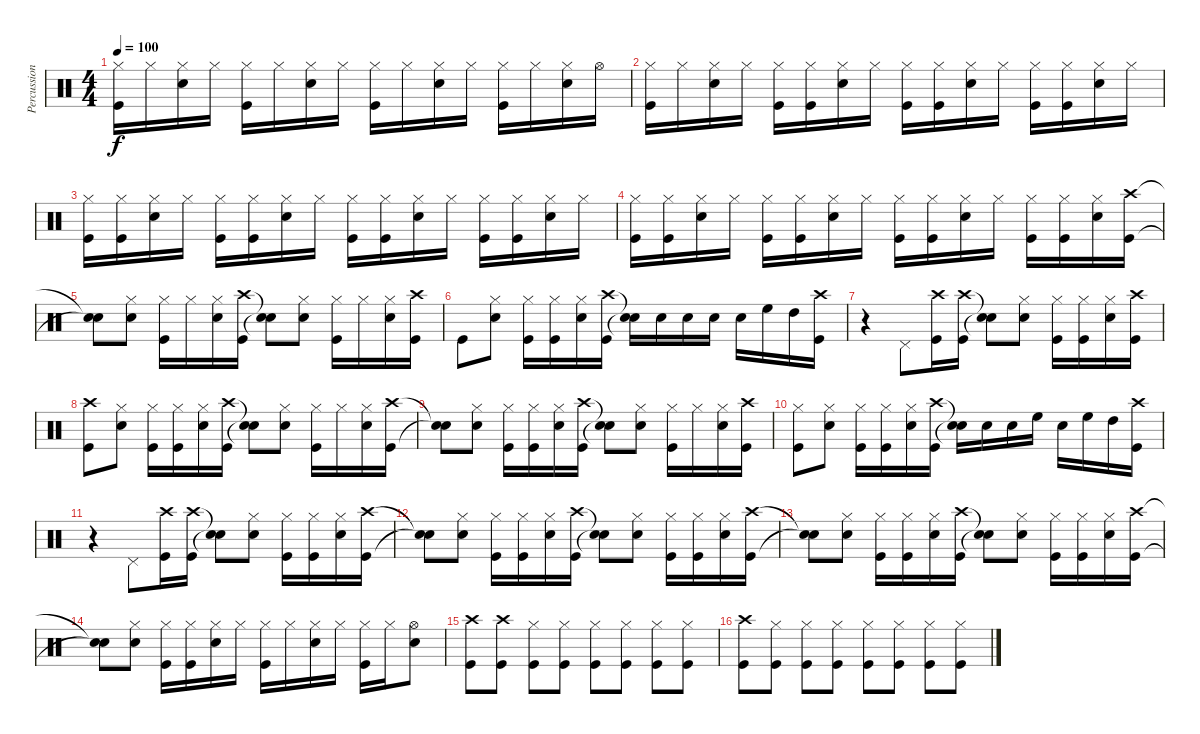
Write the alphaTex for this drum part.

\track ("Percussions" "Percussion") {instrument percussion}
\staff {score}
\articulation defaults
\ts (4 4)
\tempo 100
\clef neutral
\ks c
("Hi-Hat (closed)" "Kick (hit)").16{dy f} "Hi-Hat (closed)".16 ("Hi-Hat (closed)" "Snare (hit) 2").16 "Hi-Hat (closed)".16 ("Hi-Hat (closed)" "Kick (hit)").16 "Hi-Hat (closed)".16 ("Hi-Hat (closed)" "Snare (hit) 2").16 "Hi-Hat (closed)".16 ("Hi-Hat (closed)" "Kick (hit)").16 "Hi-Hat (closed)".16 ("Hi-Hat (closed)" "Snare (hit) 2").16 "Hi-Hat (closed)".16 ("Hi-Hat (closed)" "Kick (hit)").16 "Hi-Hat (closed)".16 ("Hi-Hat (closed)" "Snare (hit) 2").16 "Hi-Hat (open)".16 |
("Hi-Hat (closed)" "Kick (hit)").16 "Hi-Hat (closed)".16 ("Hi-Hat (closed)" "Snare (hit) 2").16 "Hi-Hat (closed)".16 ("Hi-Hat (closed)" "Kick (hit)").16 ("Hi-Hat (closed)" "Kick (hit)").16 ("Hi-Hat (closed)" "Snare (hit) 2").16 "Hi-Hat (closed)".16 ("Hi-Hat (closed)" "Kick (hit)").16 ("Hi-Hat (closed)" "Kick (hit)").16 ("Hi-Hat (closed)" "Snare (hit) 2").16 "Hi-Hat (closed)".16 ("Hi-Hat (closed)" "Kick (hit)").16 ("Hi-Hat (closed)" "Kick (hit)").16 ("Hi-Hat (closed)" "Snare (hit) 2").16 "Hi-Hat (closed)".16 |
("Hi-Hat (closed)" "Kick (hit)").16 ("Hi-Hat (closed)" "Kick (hit)").16 ("Hi-Hat (closed)" "Snare (hit) 2").16 "Hi-Hat (closed)".16 ("Hi-Hat (closed)" "Kick (hit)").16 ("Hi-Hat (closed)" "Kick (hit)").16 ("Hi-Hat (closed)" "Snare (hit) 2").16 "Hi-Hat (closed)".16 ("Hi-Hat (closed)" "Kick (hit)").16 ("Hi-Hat (closed)" "Kick (hit)").16 ("Hi-Hat (closed)" "Snare (hit) 2").16 "Hi-Hat (closed)".16 ("Hi-Hat (closed)" "Kick (hit)").16 ("Hi-Hat (closed)" "Kick (hit)").16 ("Hi-Hat (closed)" "Snare (hit) 2").16 "Hi-Hat (closed)".16 |
("Hi-Hat (closed)" "Kick (hit)").16 ("Hi-Hat (closed)" "Kick (hit)").16 ("Hi-Hat (closed)" "Snare (hit) 2").16 "Hi-Hat (closed)".16 ("Hi-Hat (closed)" "Kick (hit)").16 ("Hi-Hat (closed)" "Kick (hit)").16 ("Hi-Hat (closed)" "Snare (hit) 2").16 "Hi-Hat (closed)".16 ("Hi-Hat (closed)" "Kick (hit)").16 ("Hi-Hat (closed)" "Kick (hit)").16 ("Hi-Hat (closed)" "Snare (hit) 2").16 "Hi-Hat (closed)".16 ("Hi-Hat (closed)" "Kick (hit)").16 ("Hi-Hat (closed)" "Kick (hit)").16 ("Hi-Hat (closed)" "Snare (hit) 2").16 ("Crash high (hit)" "Kick (hit)").16 |
("Snare (hit)"{t} "Snare (hit)"{t}).8 ("Hi-Hat (closed)" "Snare (hit) 2").8 ("Hi-Hat (closed)" "Kick (hit)").16 "Hi-Hat (closed)".16 ("Hi-Hat (closed)" "Snare (hit) 2").16 ("Crash high (hit)" "Kick (hit)").16 ("Snare (hit)"{t} "Snare (hit)"{t}).8 ("Hi-Hat (closed)" "Snare (hit) 2").8 ("Hi-Hat (closed)" "Kick (hit)").16 "Hi-Hat (closed)".16 ("Hi-Hat (closed)" "Snare (hit) 2").16 ("Crash high (hit)" "Kick (hit)").16 |
"Kick (hit)".8 ("Hi-Hat (closed)" "Snare (hit) 2").8 ("Hi-Hat (closed)" "Kick (hit)").16 ("Hi-Hat (closed)" "Kick (hit)").16 ("Hi-Hat (closed)" "Snare (hit) 2").16 ("Crash high (hit)" "Kick (hit)").16 ("Snare (hit)"{t} "Snare (hit)"{t}).16 "Snare (hit) 2".16 "Snare (hit) 2".16 "Snare (hit) 2".16 "Snare (hit) 2".16 "High Floor Tom (hit)".16 "High Tom (hit)".16 ("Crash high (hit)" "Kick (hit)").16 |
r.4 "Pedal Hi-Hat (hit)".8 ("Crash high (hit)" "Kick (hit)").16 ("Crash high (hit)" "Kick (hit)").16 ("Snare (hit)"{t} "Snare (hit)"{t}).8 ("Hi-Hat (closed)" "Snare (hit) 2").8 ("Hi-Hat (closed)" "Kick (hit)").16 ("Hi-Hat (closed)" "Kick (hit)").16 ("Hi-Hat (closed)" "Snare (hit) 2").16 ("Crash high (hit)" "Kick (hit)").16 |
("Crash high (hit)" "Kick (hit)").8 ("Hi-Hat (closed)" "Snare (hit) 2").8 ("Hi-Hat (closed)" "Kick (hit)").16 ("Hi-Hat (closed)" "Kick (hit)").16 ("Hi-Hat (closed)" "Snare (hit) 2").16 ("Crash high (hit)" "Kick (hit)").16 ("Snare (hit)"{t} "Snare (hit)"{t}).8 ("Hi-Hat (closed)" "Snare (hit) 2").8 ("Hi-Hat (closed)" "Kick (hit)").16 "Hi-Hat (closed)".16 ("Hi-Hat (closed)" "Snare (hit) 2").16 ("Crash high (hit)" "Kick (hit)").16 |
("Snare (hit)"{t} "Snare (hit)"{t}).8 ("Hi-Hat (closed)" "Snare (hit) 2").8 ("Hi-Hat (closed)" "Kick (hit)").16 ("Hi-Hat (closed)" "Kick (hit)").16 ("Hi-Hat (closed)" "Snare (hit) 2").16 ("Crash high (hit)" "Kick (hit)").16 ("Snare (hit)"{t} "Snare (hit)"{t}).8 ("Hi-Hat (closed)" "Snare (hit) 2").8 ("Hi-Hat (closed)" "Kick (hit)").16 "Hi-Hat (closed)".16 ("Hi-Hat (closed)" "Snare (hit) 2").16 ("Crash high (hit)" "Kick (hit)").16 |
("Hi-Hat (closed)" "Kick (hit)").8 ("Hi-Hat (closed)" "Snare (hit) 2").8 ("Hi-Hat (closed)" "Kick (hit)").16 ("Hi-Hat (closed)" "Kick (hit)").16 ("Hi-Hat (closed)" "Snare (hit) 2").16 ("Crash high (hit)" "Kick (hit)").16 ("Snare (hit)"{t} "Snare (hit)"{t}).16 "Snare (hit) 2".16 "Snare (hit) 2".16 "High Floor Tom (hit)".16 "Snare (hit) 2".16 "High Floor Tom (hit)".16 "High Tom (hit)".16 ("Crash high (hit)" "Kick (hit)").16 |
r.4 "Pedal Hi-Hat (hit)".8 ("Crash high (hit)" "Kick (hit)").16 ("Crash high (hit)" "Kick (hit)").16 ("Snare (hit)"{t} "Snare (hit)"{t}).8 ("Hi-Hat (closed)" "Snare (hit) 2").8 ("Hi-Hat (closed)" "Kick (hit)").16 ("Hi-Hat (closed)" "Kick (hit)").16 ("Hi-Hat (closed)" "Snare (hit) 2").16 ("Crash high (hit)" "Kick (hit)").16 |
("Snare (hit)"{t} "Snare (hit)"{t}).8 ("Hi-Hat (closed)" "Snare (hit) 2").8 ("Hi-Hat (closed)" "Kick (hit)").16 ("Hi-Hat (closed)" "Kick (hit)").16 ("Hi-Hat (closed)" "Snare (hit) 2").16 ("Crash high (hit)" "Kick (hit)").16 ("Snare (hit)"{t} "Snare (hit)"{t}).8 ("Hi-Hat (closed)" "Snare (hit) 2").8 ("Hi-Hat (closed)" "Kick (hit)").16 ("Hi-Hat (closed)" "Kick (hit)").16 ("Hi-Hat (closed)" "Snare (hit) 2").16 ("Crash high (hit)" "Kick (hit)").16 |
("Snare (hit)"{t} "Snare (hit)"{t}).8 ("Hi-Hat (closed)" "Snare (hit) 2").8 ("Hi-Hat (closed)" "Kick (hit)").16 ("Hi-Hat (closed)" "Kick (hit)").16 ("Hi-Hat (closed)" "Snare (hit) 2").16 ("Crash high (hit)" "Kick (hit)").16 ("Snare (hit)"{t} "Snare (hit)"{t}).8 ("Hi-Hat (closed)" "Snare (hit) 2").8 ("Hi-Hat (closed)" "Kick (hit)").16 ("Hi-Hat (closed)" "Kick (hit)").16 ("Hi-Hat (closed)" "Snare (hit) 2").16 ("Crash high (hit)" "Kick (hit)").16 |
("Snare (hit)"{t} "Snare (hit)"{t}).8 ("Hi-Hat (closed)" "Snare (hit) 2").8 ("Hi-Hat (closed)" "Kick (hit)").16 ("Hi-Hat (closed)" "Kick (hit)").16 ("Hi-Hat (closed)" "Snare (hit) 2").16 "Hi-Hat (closed)".16 ("Hi-Hat (closed)" "Kick (hit)").16 "Hi-Hat (closed)".16 ("Hi-Hat (closed)" "Snare (hit) 2").16 "Hi-Hat (closed)".16 ("Hi-Hat (closed)" "Kick (hit)").16 "Hi-Hat (closed)".16 ("Hi-Hat (open)" "Snare (hit) 2").8 |
("Crash high (hit)" "Kick (hit)").8 ("Crash high (hit)" "Kick (hit)").8 ("Hi-Hat (closed)" "Kick (hit)").8 ("Hi-Hat (closed)" "Kick (hit)").8 ("Hi-Hat (closed)" "Kick (hit)").8 ("Hi-Hat (closed)" "Kick (hit)").8 ("Hi-Hat (closed)" "Kick (hit)").8 ("Hi-Hat (closed)" "Kick (hit)").8 |
("Crash high (hit)" "Kick (hit)").8 ("Hi-Hat (closed)" "Kick (hit)").8 ("Hi-Hat (closed)" "Kick (hit)").8 ("Hi-Hat (closed)" "Kick (hit)").8 ("Hi-Hat (closed)" "Kick (hit)").8 ("Hi-Hat (closed)" "Kick (hit)").8 ("Hi-Hat (closed)" "Kick (hit)").8 ("Hi-Hat (closed)" "Kick (hit)").8
